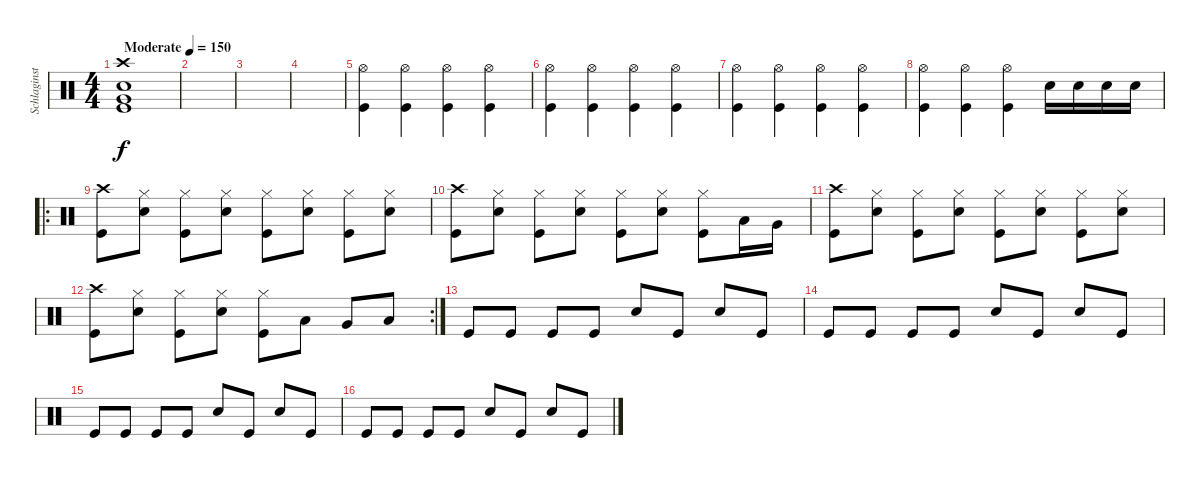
\track ("Schlaginstrumente - Auswahl" "Schlaginst") {instrument percussion}
\staff {score}
\articulation defaults
\ts (4 4)
\tempo (150 "Moderate")
\clef neutral
\ks c
("Crash high (hit)" "Very Low Tom (hit)" "Electric Snare (hit)" "Kick (hit)").1{dy f} |
|
|
|
("Hi-Hat (open)" "Kick (hit)").4 ("Hi-Hat (open)" "Kick (hit)").4 ("Hi-Hat (open)" "Kick (hit)").4 ("Hi-Hat (open)" "Kick (hit)").4 |
("Hi-Hat (open)" "Kick (hit)").4 ("Hi-Hat (open)" "Kick (hit)").4 ("Hi-Hat (open)" "Kick (hit)").4 ("Hi-Hat (open)" "Kick (hit)").4 |
("Hi-Hat (open)" "Kick (hit)").4 ("Hi-Hat (open)" "Kick (hit)").4 ("Hi-Hat (open)" "Kick (hit)").4 ("Hi-Hat (open)" "Kick (hit)").4 |
("Hi-Hat (open)" "Kick (hit)").4 ("Hi-Hat (open)" "Kick (hit)").4 ("Hi-Hat (open)" "Kick (hit)").4 "Electric Snare (hit)".16 "Electric Snare (hit)".16 "Electric Snare (hit)".16 "Electric Snare (hit)".16 |
\ro
("Crash high (hit)" "Kick (hit)").8 ("Hi-Hat (closed)" "Electric Snare (hit)").8 ("Hi-Hat (closed)" "Kick (hit)").8 ("Hi-Hat (closed)" "Electric Snare (hit)").8 ("Hi-Hat (closed)" "Kick (hit)").8 ("Hi-Hat (closed)" "Electric Snare (hit)").8 ("Hi-Hat (closed)" "Kick (hit)").8 ("Hi-Hat (closed)" "Electric Snare (hit)").8 |
("Crash high (hit)" "Kick (hit)").8 ("Hi-Hat (closed)" "Electric Snare (hit)").8 ("Hi-Hat (closed)" "Kick (hit)").8 ("Hi-Hat (closed)" "Electric Snare (hit)").8 ("Hi-Hat (closed)" "Kick (hit)").8 ("Hi-Hat (closed)" "Electric Snare (hit)").8 ("Hi-Hat (closed)" "Kick (hit)").8 "Low Tom (hit)".16 "Very Low Tom (hit)".16 |
("Crash high (hit)" "Kick (hit)").8 ("Hi-Hat (closed)" "Electric Snare (hit)").8 ("Hi-Hat (closed)" "Kick (hit)").8 ("Hi-Hat (closed)" "Electric Snare (hit)").8 ("Hi-Hat (closed)" "Kick (hit)").8 ("Hi-Hat (closed)" "Electric Snare (hit)").8 ("Hi-Hat (closed)" "Kick (hit)").8 ("Hi-Hat (closed)" "Electric Snare (hit)").8 |
\rc 2
("Crash high (hit)" "Kick (hit)").8 ("Hi-Hat (closed)" "Electric Snare (hit)").8 ("Hi-Hat (closed)" "Kick (hit)").8 ("Hi-Hat (closed)" "Electric Snare (hit)").8 ("Hi-Hat (closed)" "Kick (hit)").8 "Low Tom (hit)".8 "Very Low Tom (hit)".8 "Low Floor Tom (hit)".8 |
"Kick (hit)".8 "Kick (hit)".8 "Kick (hit)".8 "Kick (hit)".8 "Electric Snare (hit)".8 "Kick (hit)".8 "Electric Snare (hit)".8 "Kick (hit)".8 |
"Kick (hit)".8 "Kick (hit)".8 "Kick (hit)".8 "Kick (hit)".8 "Electric Snare (hit)".8 "Kick (hit)".8 "Electric Snare (hit)".8 "Kick (hit)".8 |
"Kick (hit)".8 "Kick (hit)".8 "Kick (hit)".8 "Kick (hit)".8 "Electric Snare (hit)".8 "Kick (hit)".8 "Electric Snare (hit)".8 "Kick (hit)".8 |
"Kick (hit)".8 "Kick (hit)".8 "Kick (hit)".8 "Kick (hit)".8 "Electric Snare (hit)".8 "Kick (hit)".8 "Electric Snare (hit)".8 "Kick (hit)".8
